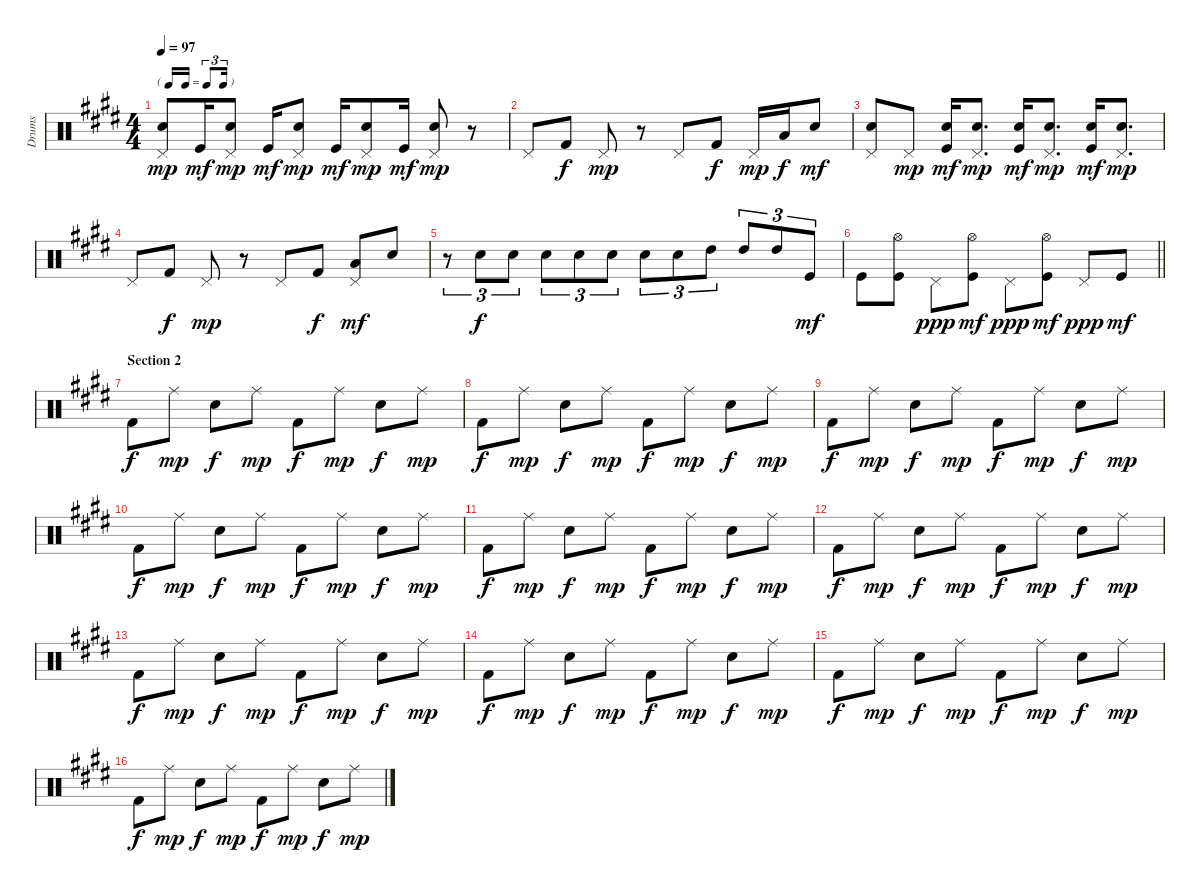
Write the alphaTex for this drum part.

\track ("Drums" "Drums") {instrument percussion}
\staff {score}
\articulation defaults
\ts (4 4)
\tf triplet16th
\tempo 97
\clef neutral
\ks c#minor
("Pedal Hi-Hat (hit)" "Snare (hit) 2").8{dy mp} "Kick (hit)".16{dy mf} ("Pedal Hi-Hat (hit)" "Snare (hit) 2").8{dy mp} "Kick (hit)".16{dy mf} ("Pedal Hi-Hat (hit)" "Snare (hit) 2").8{dy mp} "Kick (hit)".16{dy mf} ("Pedal Hi-Hat (hit)" "Snare (hit) 2").8{dy mp} "Kick (hit)".16{dy mf} ("Pedal Hi-Hat (hit)" "Snare (hit) 2").8{dy mp} r.8 |
\ks e "Pedal Hi-Hat (hit)".8 "Kick (hit) 2".8{dy f} "Pedal Hi-Hat (hit)".8{dy mp}
r.8 "Pedal Hi-Hat (hit)".8 "Kick (hit) 2".8{dy f} "Pedal Hi-Hat (hit)".16{dy mp} "Low Tom (hit)".16{dy f} "Electric Snare (hit)".8{dy mf} |
\ks c#minor
("Pedal Hi-Hat (hit)" "Snare (hit) 2").8 "Pedal Hi-Hat (hit)".8{dy mp} ("Snare (hit) 2" "Kick (hit)").16{dy mf} ("Pedal Hi-Hat (hit)" "Snare (hit) 2").8{d dy mp} ("Snare (hit) 2" "Kick (hit)").16{dy mf} ("Pedal Hi-Hat (hit)" "Snare (hit) 2").8{d dy mp} ("Snare (hit) 2" "Kick (hit)").16{dy mf} ("Pedal Hi-Hat (hit)" "Snare (hit) 2").8{d dy mp} |
"Pedal Hi-Hat (hit)".8 "Kick (hit) 2".8{dy f} "Pedal Hi-Hat (hit)".8{dy mp} r.8 "Pedal Hi-Hat (hit)".8 "Kick (hit) 2".8{dy f} ("Pedal Hi-Hat (hit)" "Low Tom (hit)").8{dy mf} "Electric Snare (hit)".8 |
\ks e
r.8{tu (3 2)} "Snare (hit) 2".8{tu (3 2) dy f} "Snare (hit) 2".8{tu (3 2)} "Snare (hit) 2".8{tu (3 2)} "Snare (hit) 2".8{tu (3 2)} "Snare (hit) 2".8{tu (3 2)} "Snare (hit) 2".8{tu (3 2)} "Snare (hit) 2".8{tu (3 2)} "High Tom (hit)".8{tu (3 2)} "High Tom (hit)".8{tu (3 2)} "High Tom (hit)".8{tu (3 2)} "Kick (hit)".8{tu (3 2) dy mf} |
\barLineRight lightlight "Kick (hit)".8
("Hi-Hat (open)" "Kick (hit)").8 "Pedal Hi-Hat (hit)".8{dy ppp} ("Hi-Hat (open)" "Kick (hit)").8{dy mf} "Pedal Hi-Hat (hit)".8{dy ppp} ("Hi-Hat (open)" "Kick (hit)").8{dy mf} "Pedal Hi-Hat (hit)".8{dy ppp} "Kick (hit)".8{dy mf} |
\section ("" "Section 2")
\ks c#minor "Kick (hit) 2".8{dy f} "Ride (middle)".8{dy mp} "Snare (hit) 2".8{dy f} "Ride (middle)".8{dy mp} "Kick (hit) 2".8{dy f} "Ride (middle)".8{dy mp} "Snare (hit) 2".8{dy f} "Ride (middle)".8{dy mp}
|
\ks e "Kick (hit) 2".8{dy f} "Ride (middle)".8{dy mp} "Snare (hit) 2".8{dy f} "Ride (middle)".8{dy mp} "Kick (hit) 2".8{dy f} "Ride (middle)".8{dy mp} "Snare (hit) 2".8{dy f} "Ride (middle)".8{dy mp}
|
\ks c#minor "Kick (hit) 2".8{dy f} "Ride (middle)".8{dy mp} "Snare (hit) 2".8{dy f} "Ride (middle)".8{dy mp} "Kick (hit) 2".8{dy f} "Ride (middle)".8{dy mp} "Snare (hit) 2".8{dy f} "Ride (middle)".8{dy mp}
|
\ks e "Kick (hit) 2".8{dy f} "Ride (middle)".8{dy mp} "Snare (hit) 2".8{dy f} "Ride (middle)".8{dy mp} "Kick (hit) 2".8{dy f} "Ride (middle)".8{dy mp} "Snare (hit) 2".8{dy f} "Ride (middle)".8{dy mp}
|
\ks c#minor "Kick (hit) 2".8{dy f} "Ride (middle)".8{dy mp} "Snare (hit) 2".8{dy f} "Ride (middle)".8{dy mp} "Kick (hit) 2".8{dy f} "Ride (middle)".8{dy mp} "Snare (hit) 2".8{dy f} "Ride (middle)".8{dy mp}
|
\ks e "Kick (hit) 2".8{dy f} "Ride (middle)".8{dy mp} "Snare (hit) 2".8{dy f} "Ride (middle)".8{dy mp} "Kick (hit) 2".8{dy f} "Ride (middle)".8{dy mp} "Snare (hit) 2".8{dy f} "Ride (middle)".8{dy mp}
|
\ks c#minor "Kick (hit) 2".8{dy f} "Ride (middle)".8{dy mp} "Snare (hit) 2".8{dy f} "Ride (middle)".8{dy mp} "Kick (hit) 2".8{dy f} "Ride (middle)".8{dy mp} "Snare (hit) 2".8{dy f} "Ride (middle)".8{dy mp}
|
\ks e "Kick (hit) 2".8{dy f} "Ride (middle)".8{dy mp} "Snare (hit) 2".8{dy f} "Ride (middle)".8{dy mp} "Kick (hit) 2".8{dy f} "Ride (middle)".8{dy mp} "Snare (hit) 2".8{dy f} "Ride (middle)".8{dy mp}
|
\ks c#minor "Kick (hit) 2".8{dy f} "Ride (middle)".8{dy mp} "Snare (hit) 2".8{dy f} "Ride (middle)".8{dy mp} "Kick (hit) 2".8{dy f} "Ride (middle)".8{dy mp} "Snare (hit) 2".8{dy f} "Ride (middle)".8{dy mp}
|
\ks e "Kick (hit) 2".8{dy f} "Ride (middle)".8{dy mp} "Snare (hit) 2".8{dy f} "Ride (middle)".8{dy mp} "Kick (hit) 2".8{dy f} "Ride (middle)".8{dy mp} "Snare (hit) 2".8{dy f} "Ride (middle)".8{dy mp}
